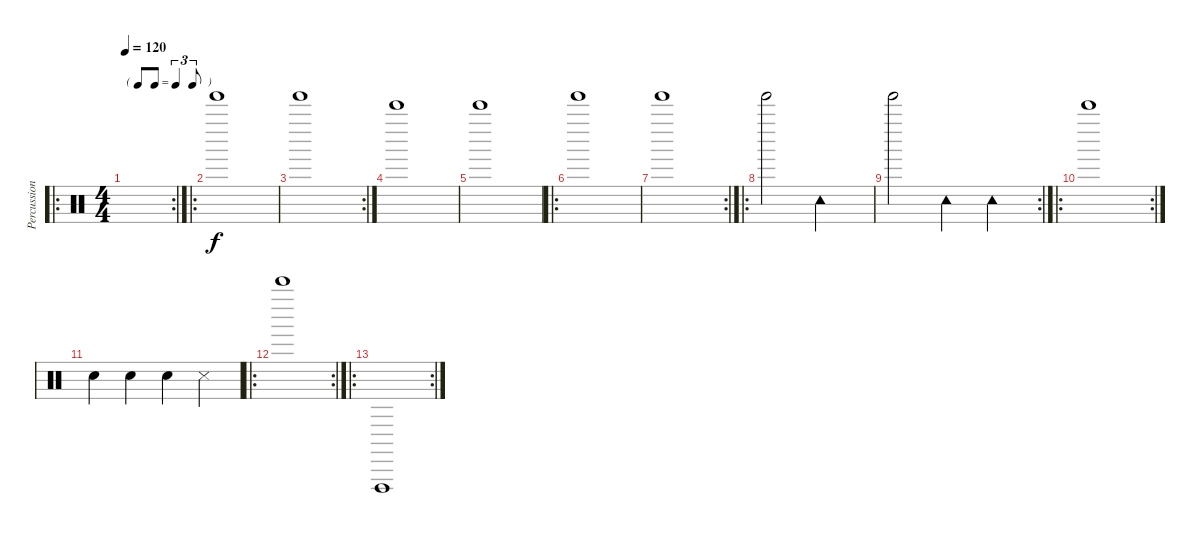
\track ("Percussions" "Percussion") {instrument percussion}
\staff {score}
\articulation defaults
\ro
\rc 2
\ts (4 4)
\tf triplet8th
\tempo 120
\clef neutral
\ks c
|
\ro "Tinkle Bell (hit)".1
|
\rc 2 "Tinkle Bell (hit)".1
|
"Bell Tree (hit)".1 |
"Bell Tree (hit)".1 |
\ro "Tinkle Bell (hit)".1
|
\rc 2 "Tinkle Bell (hit)".1
|
\ro "Tinkle Bell (hit)".2 "Tambourine (hit)".2
|
\rc 2 "Tinkle Bell (hit)".2 "Tambourine (hit)".4 "Tambourine (hit)".4
|
\ro
\rc 2 "Bell Tree (hit)".1
|
"Metronome (bell)".4 "Metronome (bell)".4 "Metronome (bell)".4 "Metronome (hit)".4 |
\ro
\rc 2 "Bell Tree (hit)".1
|
\ro
\rc 2 "Vibraslap (hit)".1
